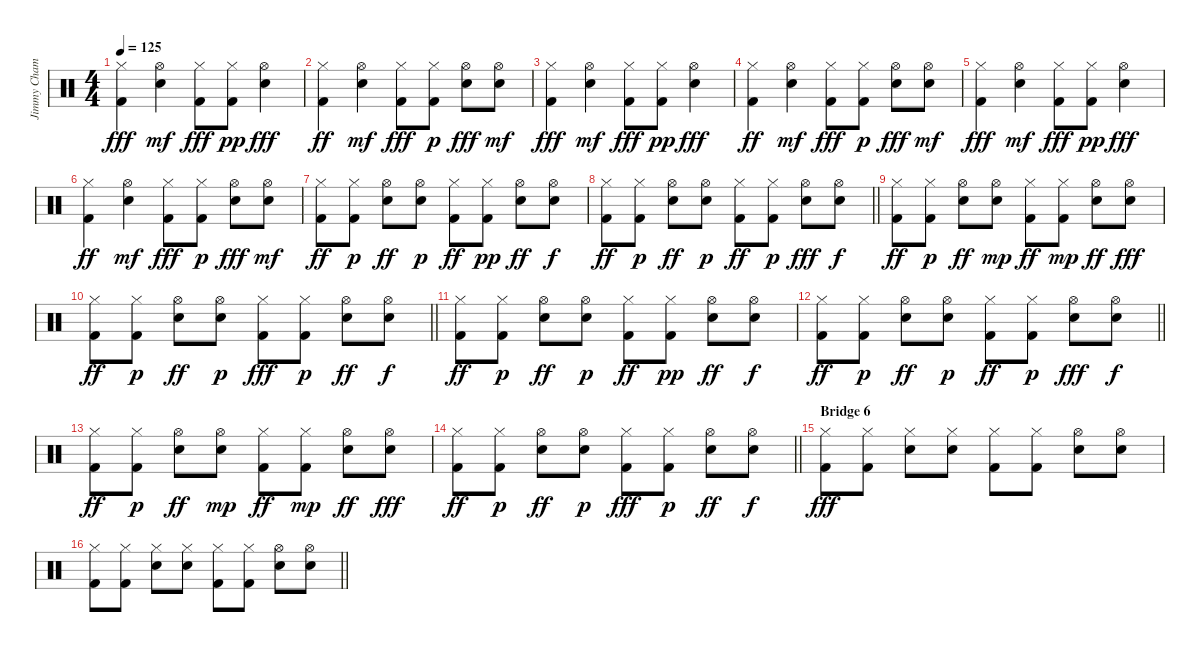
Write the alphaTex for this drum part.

\track ("Jimmy Chamberline" "Jimmy Cham") {instrument percussion}
\staff {score}
\articulation defaults
\ts (4 4)
\tempo 125
\clef neutral
\ks c
("Hi-Hat (closed)" "Kick (hit) 2").4{dy fff} ("Hi-Hat (open)" "Snare (hit) 2").4{dy mf} ("Hi-Hat (closed)" "Kick (hit) 2").8{dy fff} ("Hi-Hat (closed)" "Kick (hit) 2").8{dy pp} ("Hi-Hat (open)" "Snare (hit) 2").4{dy fff} |
("Hi-Hat (closed)" "Kick (hit) 2").4{dy ff} ("Hi-Hat (open)" "Snare (hit) 2").4{dy mf} ("Hi-Hat (closed)" "Kick (hit) 2").8{dy fff} ("Hi-Hat (closed)" "Kick (hit) 2").8{dy p} ("Hi-Hat (open)" "Snare (hit) 2").8{dy fff} ("Hi-Hat (open)" "Snare (hit) 2").8{dy mf} |
("Hi-Hat (closed)" "Kick (hit) 2").4{dy fff} ("Hi-Hat (open)" "Snare (hit) 2").4{dy mf} ("Hi-Hat (closed)" "Kick (hit) 2").8{dy fff} ("Hi-Hat (closed)" "Kick (hit) 2").8{dy pp} ("Hi-Hat (open)" "Snare (hit) 2").4{dy fff} |
("Hi-Hat (closed)" "Kick (hit) 2").4{dy ff} ("Hi-Hat (open)" "Snare (hit) 2").4{dy mf} ("Hi-Hat (closed)" "Kick (hit) 2").8{dy fff} ("Hi-Hat (closed)" "Kick (hit) 2").8{dy p} ("Hi-Hat (open)" "Snare (hit) 2").8{dy fff} ("Hi-Hat (open)" "Snare (hit) 2").8{dy mf} |
("Hi-Hat (closed)" "Kick (hit) 2").4{dy fff} ("Hi-Hat (open)" "Snare (hit) 2").4{dy mf} ("Hi-Hat (closed)" "Kick (hit) 2").8{dy fff} ("Hi-Hat (closed)" "Kick (hit) 2").8{dy pp} ("Hi-Hat (open)" "Snare (hit) 2").4{dy fff} |
("Hi-Hat (closed)" "Kick (hit) 2").4{dy ff} ("Hi-Hat (open)" "Snare (hit) 2").4{dy mf} ("Hi-Hat (closed)" "Kick (hit) 2").8{dy fff} ("Hi-Hat (closed)" "Kick (hit) 2").8{dy p} ("Hi-Hat (open)" "Snare (hit) 2").8{dy fff} ("Hi-Hat (open)" "Snare (hit) 2").8{dy mf} |
("Hi-Hat (closed)" "Kick (hit) 2").8{dy ff} ("Hi-Hat (closed)" "Kick (hit) 2").8{dy p} ("Hi-Hat (open)" "Snare (hit) 2").8{dy ff} ("Hi-Hat (open)" "Snare (hit) 2").8{dy p} ("Hi-Hat (closed)" "Kick (hit) 2").8{dy ff} ("Hi-Hat (closed)" "Kick (hit) 2").8{dy pp} ("Hi-Hat (open)" "Snare (hit) 2").8{dy ff} ("Hi-Hat (open)" "Snare (hit) 2").8{dy f} |
\barLineRight lightlight
("Hi-Hat (closed)" "Kick (hit) 2").8{dy ff} ("Hi-Hat (closed)" "Kick (hit) 2").8{dy p} ("Hi-Hat (open)" "Snare (hit) 2").8{dy ff} ("Hi-Hat (open)" "Snare (hit) 2").8{dy p} ("Hi-Hat (closed)" "Kick (hit) 2").8{dy ff} ("Hi-Hat (closed)" "Kick (hit) 2").8{dy p} ("Hi-Hat (open)" "Snare (hit) 2").8{dy fff} ("Hi-Hat (open)" "Snare (hit) 2").8{dy f} |
("Hi-Hat (closed)" "Kick (hit) 2").8{dy ff} ("Hi-Hat (closed)" "Kick (hit) 2").8{dy p} ("Hi-Hat (open)" "Snare (hit) 2").8{dy ff} ("Hi-Hat (open)" "Snare (hit) 2").8{dy mp} ("Hi-Hat (closed)" "Kick (hit) 2").8{dy ff} ("Hi-Hat (closed)" "Kick (hit) 2").8{dy mp} ("Hi-Hat (open)" "Snare (hit) 2").8{dy ff} ("Hi-Hat (open)" "Snare (hit) 2").8{dy fff} |
\barLineRight lightlight
("Hi-Hat (closed)" "Kick (hit) 2").8{dy ff} ("Hi-Hat (closed)" "Kick (hit) 2").8{dy p} ("Hi-Hat (open)" "Snare (hit) 2").8{dy ff} ("Hi-Hat (open)" "Snare (hit) 2").8{dy p} ("Hi-Hat (closed)" "Kick (hit) 2").8{dy fff} ("Hi-Hat (closed)" "Kick (hit) 2").8{dy p} ("Hi-Hat (open)" "Snare (hit) 2").8{dy ff} ("Hi-Hat (open)" "Snare (hit) 2").8{dy f} |
("Hi-Hat (closed)" "Kick (hit) 2").8{dy ff} ("Hi-Hat (closed)" "Kick (hit) 2").8{dy p} ("Hi-Hat (open)" "Snare (hit) 2").8{dy ff} ("Hi-Hat (open)" "Snare (hit) 2").8{dy p} ("Hi-Hat (closed)" "Kick (hit) 2").8{dy ff} ("Hi-Hat (closed)" "Kick (hit) 2").8{dy pp} ("Hi-Hat (open)" "Snare (hit) 2").8{dy ff} ("Hi-Hat (open)" "Snare (hit) 2").8{dy f} |
\barLineRight lightlight
("Hi-Hat (closed)" "Kick (hit) 2").8{dy ff} ("Hi-Hat (closed)" "Kick (hit) 2").8{dy p} ("Hi-Hat (open)" "Snare (hit) 2").8{dy ff} ("Hi-Hat (open)" "Snare (hit) 2").8{dy p} ("Hi-Hat (closed)" "Kick (hit) 2").8{dy ff} ("Hi-Hat (closed)" "Kick (hit) 2").8{dy p} ("Hi-Hat (open)" "Snare (hit) 2").8{dy fff} ("Hi-Hat (open)" "Snare (hit) 2").8{dy f} |
("Hi-Hat (closed)" "Kick (hit) 2").8{dy ff} ("Hi-Hat (closed)" "Kick (hit) 2").8{dy p} ("Hi-Hat (open)" "Snare (hit) 2").8{dy ff} ("Hi-Hat (open)" "Snare (hit) 2").8{dy mp} ("Hi-Hat (closed)" "Kick (hit) 2").8{dy ff} ("Hi-Hat (closed)" "Kick (hit) 2").8{dy mp} ("Hi-Hat (open)" "Snare (hit) 2").8{dy ff} ("Hi-Hat (open)" "Snare (hit) 2").8{dy fff} |
\barLineRight lightlight
("Hi-Hat (closed)" "Kick (hit) 2").8{dy ff} ("Hi-Hat (closed)" "Kick (hit) 2").8{dy p} ("Hi-Hat (open)" "Snare (hit) 2").8{dy ff} ("Hi-Hat (open)" "Snare (hit) 2").8{dy p} ("Hi-Hat (closed)" "Kick (hit) 2").8{dy fff} ("Hi-Hat (closed)" "Kick (hit) 2").8{dy p} ("Hi-Hat (open)" "Snare (hit) 2").8{dy ff} ("Hi-Hat (open)" "Snare (hit) 2").8{dy f} |
\section ("" "Bridge 6")
("Hi-Hat (closed)" "Kick (hit) 2").8{dy fff} ("Hi-Hat (closed)" "Kick (hit) 2").8 ("Hi-Hat (closed)" "Snare (hit) 2").8 ("Hi-Hat (closed)" "Snare (hit) 2").8 ("Hi-Hat (closed)" "Kick (hit) 2").8 ("Hi-Hat (closed)" "Kick (hit) 2").8 ("Hi-Hat (open)" "Snare (hit) 2").8 ("Hi-Hat (open)" "Snare (hit) 2").8 |
\barLineRight lightlight
("Hi-Hat (closed)" "Kick (hit) 2").8 ("Hi-Hat (closed)" "Kick (hit) 2").8 ("Hi-Hat (closed)" "Snare (hit) 2").8 ("Hi-Hat (closed)" "Snare (hit) 2").8 ("Hi-Hat (closed)" "Kick (hit) 2").8 ("Hi-Hat (closed)" "Kick (hit) 2").8 ("Hi-Hat (open)" "Snare (hit) 2").8 ("Hi-Hat (open)" "Snare (hit) 2").8
